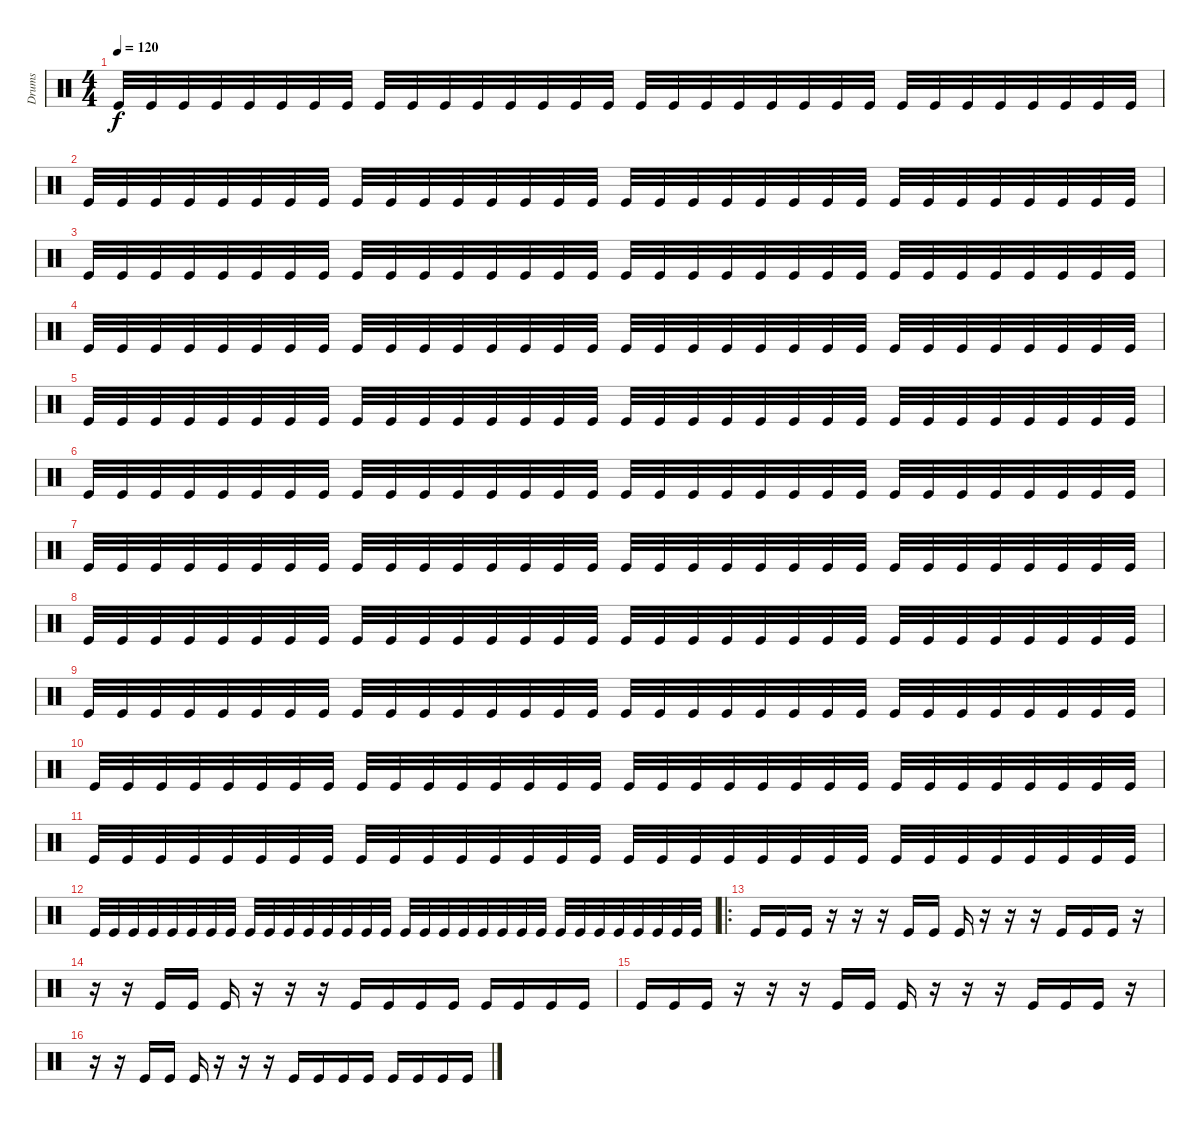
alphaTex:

\track ("Drums" "Drums") {instrument percussion}
\staff {score}
\articulation defaults
\ts (4 4)
\tempo 120
\clef neutral
\ks c "Kick (hit)".32{dy f} "Kick (hit)".32 "Kick (hit)".32 "Kick (hit)".32 "Kick (hit)".32 "Kick (hit)".32 "Kick (hit)".32 "Kick (hit)".32 "Kick (hit)".32 "Kick (hit)".32 "Kick (hit)".32 "Kick (hit)".32 "Kick (hit)".32 "Kick (hit)".32 "Kick (hit)".32 "Kick (hit)".32 "Kick (hit)".32 "Kick (hit)".32 "Kick (hit)".32 "Kick (hit)".32 "Kick (hit)".32 "Kick (hit)".32 "Kick (hit)".32 "Kick (hit)".32 "Kick (hit)".32 "Kick (hit)".32 "Kick (hit)".32 "Kick (hit)".32 "Kick (hit)".32 "Kick (hit)".32 "Kick (hit)".32 "Kick (hit)".32
|
"Kick (hit)".32 "Kick (hit)".32 "Kick (hit)".32 "Kick (hit)".32 "Kick (hit)".32 "Kick (hit)".32 "Kick (hit)".32 "Kick (hit)".32 "Kick (hit)".32 "Kick (hit)".32 "Kick (hit)".32 "Kick (hit)".32 "Kick (hit)".32 "Kick (hit)".32 "Kick (hit)".32 "Kick (hit)".32 "Kick (hit)".32 "Kick (hit)".32 "Kick (hit)".32 "Kick (hit)".32 "Kick (hit)".32 "Kick (hit)".32 "Kick (hit)".32 "Kick (hit)".32 "Kick (hit)".32 "Kick (hit)".32 "Kick (hit)".32 "Kick (hit)".32 "Kick (hit)".32 "Kick (hit)".32 "Kick (hit)".32 "Kick (hit)".32 |
"Kick (hit)".32 "Kick (hit)".32 "Kick (hit)".32 "Kick (hit)".32 "Kick (hit)".32 "Kick (hit)".32 "Kick (hit)".32 "Kick (hit)".32 "Kick (hit)".32 "Kick (hit)".32 "Kick (hit)".32 "Kick (hit)".32 "Kick (hit)".32 "Kick (hit)".32 "Kick (hit)".32 "Kick (hit)".32 "Kick (hit)".32 "Kick (hit)".32 "Kick (hit)".32 "Kick (hit)".32 "Kick (hit)".32 "Kick (hit)".32 "Kick (hit)".32 "Kick (hit)".32 "Kick (hit)".32 "Kick (hit)".32 "Kick (hit)".32 "Kick (hit)".32 "Kick (hit)".32 "Kick (hit)".32 "Kick (hit)".32 "Kick (hit)".32 |
"Kick (hit)".32 "Kick (hit)".32 "Kick (hit)".32 "Kick (hit)".32 "Kick (hit)".32 "Kick (hit)".32 "Kick (hit)".32 "Kick (hit)".32 "Kick (hit)".32 "Kick (hit)".32 "Kick (hit)".32 "Kick (hit)".32 "Kick (hit)".32 "Kick (hit)".32 "Kick (hit)".32 "Kick (hit)".32 "Kick (hit)".32 "Kick (hit)".32 "Kick (hit)".32 "Kick (hit)".32 "Kick (hit)".32 "Kick (hit)".32 "Kick (hit)".32 "Kick (hit)".32 "Kick (hit)".32 "Kick (hit)".32 "Kick (hit)".32 "Kick (hit)".32 "Kick (hit)".32 "Kick (hit)".32 "Kick (hit)".32 "Kick (hit)".32 |
"Kick (hit)".32 "Kick (hit)".32 "Kick (hit)".32 "Kick (hit)".32 "Kick (hit)".32 "Kick (hit)".32 "Kick (hit)".32 "Kick (hit)".32 "Kick (hit)".32 "Kick (hit)".32 "Kick (hit)".32 "Kick (hit)".32 "Kick (hit)".32 "Kick (hit)".32 "Kick (hit)".32 "Kick (hit)".32 "Kick (hit)".32 "Kick (hit)".32 "Kick (hit)".32 "Kick (hit)".32 "Kick (hit)".32 "Kick (hit)".32 "Kick (hit)".32 "Kick (hit)".32 "Kick (hit)".32 "Kick (hit)".32 "Kick (hit)".32 "Kick (hit)".32 "Kick (hit)".32 "Kick (hit)".32 "Kick (hit)".32 "Kick (hit)".32 |
"Kick (hit)".32 "Kick (hit)".32 "Kick (hit)".32 "Kick (hit)".32 "Kick (hit)".32 "Kick (hit)".32 "Kick (hit)".32 "Kick (hit)".32 "Kick (hit)".32 "Kick (hit)".32 "Kick (hit)".32 "Kick (hit)".32 "Kick (hit)".32 "Kick (hit)".32 "Kick (hit)".32 "Kick (hit)".32 "Kick (hit)".32 "Kick (hit)".32 "Kick (hit)".32 "Kick (hit)".32 "Kick (hit)".32 "Kick (hit)".32 "Kick (hit)".32 "Kick (hit)".32 "Kick (hit)".32 "Kick (hit)".32 "Kick (hit)".32 "Kick (hit)".32 "Kick (hit)".32 "Kick (hit)".32 "Kick (hit)".32 "Kick (hit)".32 |
"Kick (hit)".32 "Kick (hit)".32 "Kick (hit)".32 "Kick (hit)".32 "Kick (hit)".32 "Kick (hit)".32 "Kick (hit)".32 "Kick (hit)".32 "Kick (hit)".32 "Kick (hit)".32 "Kick (hit)".32 "Kick (hit)".32 "Kick (hit)".32 "Kick (hit)".32 "Kick (hit)".32 "Kick (hit)".32 "Kick (hit)".32 "Kick (hit)".32 "Kick (hit)".32 "Kick (hit)".32 "Kick (hit)".32 "Kick (hit)".32 "Kick (hit)".32 "Kick (hit)".32 "Kick (hit)".32 "Kick (hit)".32 "Kick (hit)".32 "Kick (hit)".32 "Kick (hit)".32 "Kick (hit)".32 "Kick (hit)".32 "Kick (hit)".32 |
"Kick (hit)".32 "Kick (hit)".32 "Kick (hit)".32 "Kick (hit)".32 "Kick (hit)".32 "Kick (hit)".32 "Kick (hit)".32 "Kick (hit)".32 "Kick (hit)".32 "Kick (hit)".32 "Kick (hit)".32 "Kick (hit)".32 "Kick (hit)".32 "Kick (hit)".32 "Kick (hit)".32 "Kick (hit)".32 "Kick (hit)".32 "Kick (hit)".32 "Kick (hit)".32 "Kick (hit)".32 "Kick (hit)".32 "Kick (hit)".32 "Kick (hit)".32 "Kick (hit)".32 "Kick (hit)".32 "Kick (hit)".32 "Kick (hit)".32 "Kick (hit)".32 "Kick (hit)".32 "Kick (hit)".32 "Kick (hit)".32 "Kick (hit)".32 |
"Kick (hit)".32 "Kick (hit)".32 "Kick (hit)".32 "Kick (hit)".32 "Kick (hit)".32 "Kick (hit)".32 "Kick (hit)".32 "Kick (hit)".32 "Kick (hit)".32 "Kick (hit)".32 "Kick (hit)".32 "Kick (hit)".32 "Kick (hit)".32 "Kick (hit)".32 "Kick (hit)".32 "Kick (hit)".32 "Kick (hit)".32 "Kick (hit)".32 "Kick (hit)".32 "Kick (hit)".32 "Kick (hit)".32 "Kick (hit)".32 "Kick (hit)".32 "Kick (hit)".32 "Kick (hit)".32 "Kick (hit)".32 "Kick (hit)".32 "Kick (hit)".32 "Kick (hit)".32 "Kick (hit)".32 "Kick (hit)".32 "Kick (hit)".32 |
"Kick (hit)".32 "Kick (hit)".32 "Kick (hit)".32 "Kick (hit)".32 "Kick (hit)".32 "Kick (hit)".32 "Kick (hit)".32 "Kick (hit)".32 "Kick (hit)".32 "Kick (hit)".32 "Kick (hit)".32 "Kick (hit)".32 "Kick (hit)".32 "Kick (hit)".32 "Kick (hit)".32 "Kick (hit)".32 "Kick (hit)".32 "Kick (hit)".32 "Kick (hit)".32 "Kick (hit)".32 "Kick (hit)".32 "Kick (hit)".32 "Kick (hit)".32 "Kick (hit)".32 "Kick (hit)".32 "Kick (hit)".32 "Kick (hit)".32 "Kick (hit)".32 "Kick (hit)".32 "Kick (hit)".32 "Kick (hit)".32 "Kick (hit)".32 |
"Kick (hit)".32 "Kick (hit)".32 "Kick (hit)".32 "Kick (hit)".32 "Kick (hit)".32 "Kick (hit)".32 "Kick (hit)".32 "Kick (hit)".32 "Kick (hit)".32 "Kick (hit)".32 "Kick (hit)".32 "Kick (hit)".32 "Kick (hit)".32 "Kick (hit)".32 "Kick (hit)".32 "Kick (hit)".32 "Kick (hit)".32 "Kick (hit)".32 "Kick (hit)".32 "Kick (hit)".32 "Kick (hit)".32 "Kick (hit)".32 "Kick (hit)".32 "Kick (hit)".32 "Kick (hit)".32 "Kick (hit)".32 "Kick (hit)".32 "Kick (hit)".32 "Kick (hit)".32 "Kick (hit)".32 "Kick (hit)".32 "Kick (hit)".32 |
"Kick (hit)".32 "Kick (hit)".32 "Kick (hit)".32 "Kick (hit)".32 "Kick (hit)".32 "Kick (hit)".32 "Kick (hit)".32 "Kick (hit)".32 "Kick (hit)".32 "Kick (hit)".32 "Kick (hit)".32 "Kick (hit)".32 "Kick (hit)".32 "Kick (hit)".32 "Kick (hit)".32 "Kick (hit)".32 "Kick (hit)".32 "Kick (hit)".32 "Kick (hit)".32 "Kick (hit)".32 "Kick (hit)".32 "Kick (hit)".32 "Kick (hit)".32 "Kick (hit)".32 "Kick (hit)".32 "Kick (hit)".32 "Kick (hit)".32 "Kick (hit)".32 "Kick (hit)".32 "Kick (hit)".32 "Kick (hit)".32 "Kick (hit)".32 |
\ro "Kick (hit)".16 "Kick (hit)".16 "Kick (hit)".16
r.16 r.16 r.16 "Kick (hit)".16 "Kick (hit)".16 "Kick (hit)".16 r.16 r.16 r.16 "Kick (hit)".16 "Kick (hit)".16 "Kick (hit)".16 r.16 |
r.16 r.16 "Kick (hit)".16 "Kick (hit)".16 "Kick (hit)".16 r.16 r.16 r.16 "Kick (hit)".16 "Kick (hit)".16 "Kick (hit)".16 "Kick (hit)".16 "Kick (hit)".16 "Kick (hit)".16 "Kick (hit)".16 "Kick (hit)".16 |
"Kick (hit)".16 "Kick (hit)".16 "Kick (hit)".16 r.16 r.16 r.16 "Kick (hit)".16 "Kick (hit)".16 "Kick (hit)".16 r.16 r.16 r.16 "Kick (hit)".16 "Kick (hit)".16 "Kick (hit)".16 r.16 |
r.16 r.16 "Kick (hit)".16 "Kick (hit)".16 "Kick (hit)".16 r.16 r.16 r.16 "Kick (hit)".16 "Kick (hit)".16 "Kick (hit)".16 "Kick (hit)".16 "Kick (hit)".16 "Kick (hit)".16 "Kick (hit)".16 "Kick (hit)".16
